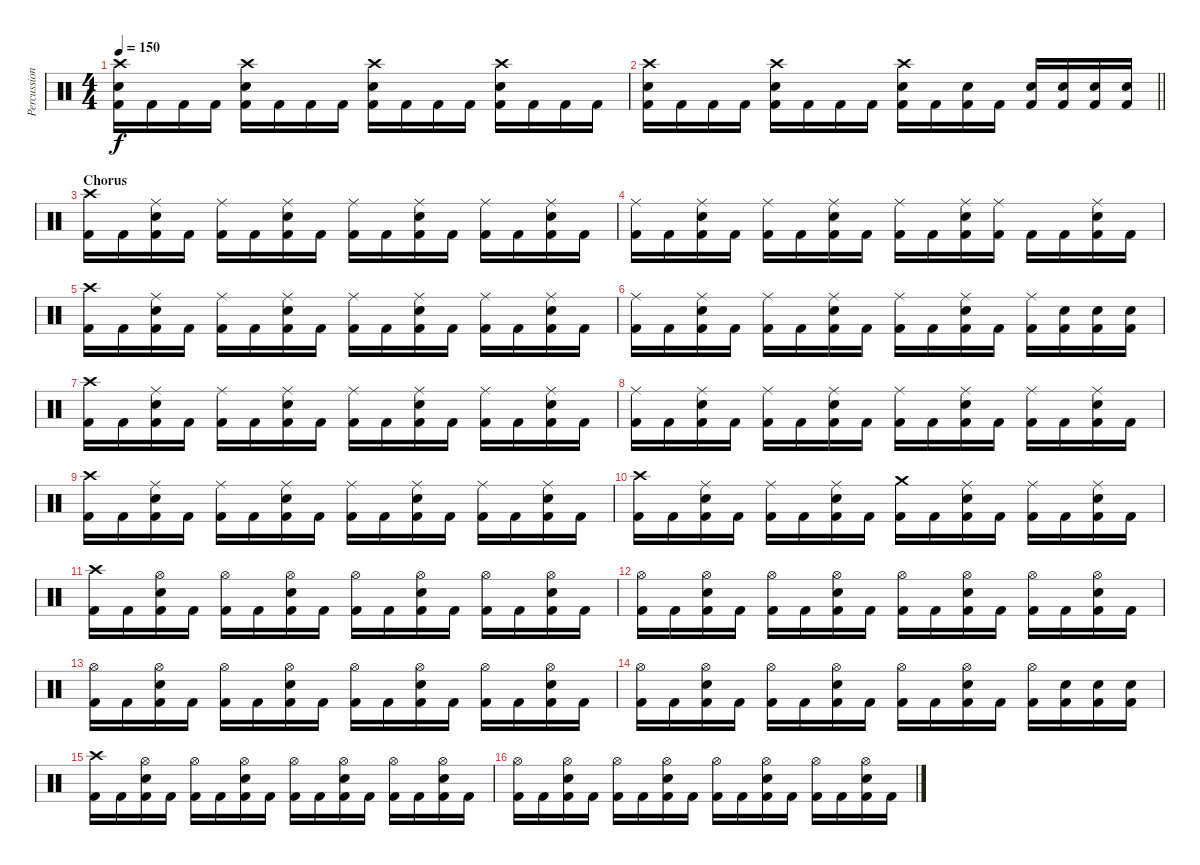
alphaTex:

\track ("Percussion" "Percussion") {instrument percussion}
\staff {score}
\articulation defaults
\ts (4 4)
\tempo 150
\clef neutral
\ks c
("Crash high (hit)" "Electric Snare (hit)" "Kick (hit) 2").16{dy f} "Kick (hit) 2".16 "Kick (hit) 2".16 "Kick (hit) 2".16 ("Crash high (hit)" "Electric Snare (hit)" "Kick (hit) 2").16 "Kick (hit) 2".16 "Kick (hit) 2".16 "Kick (hit) 2".16 ("Crash high (hit)" "Electric Snare (hit)" "Kick (hit) 2").16 "Kick (hit) 2".16 "Kick (hit) 2".16 "Kick (hit) 2".16 ("Crash high (hit)" "Electric Snare (hit)" "Kick (hit) 2").16 "Kick (hit) 2".16 "Kick (hit) 2".16 "Kick (hit) 2".16 |
\barLineRight lightlight
("Crash high (hit)" "Electric Snare (hit)" "Kick (hit) 2").16 "Kick (hit) 2".16 "Kick (hit) 2".16 "Kick (hit) 2".16 ("Crash high (hit)" "Electric Snare (hit)" "Kick (hit) 2").16 "Kick (hit) 2".16 "Kick (hit) 2".16 "Kick (hit) 2".16 ("Crash high (hit)" "Electric Snare (hit)" "Kick (hit) 2").16 "Kick (hit) 2".16 ("Electric Snare (hit)" "Kick (hit) 2").16 "Kick (hit) 2".16 ("Electric Snare (hit)" "Kick (hit) 2").16 ("Electric Snare (hit)" "Kick (hit) 2").16 ("Electric Snare (hit)" "Kick (hit) 2").16 ("Electric Snare (hit)" "Kick (hit) 2").16 |
\section ("" "Chorus")
("Crash high (hit)" "Kick (hit) 2").16 "Kick (hit) 2".16 ("Ride (middle)" "Electric Snare (hit)" "Kick (hit) 2").16 "Kick (hit) 2".16 ("Ride (middle)" "Kick (hit) 2").16 "Kick (hit) 2".16 ("Ride (middle)" "Electric Snare (hit)" "Kick (hit) 2").16 "Kick (hit) 2".16 ("Ride (middle)" "Kick (hit) 2").16 "Kick (hit) 2".16 ("Ride (middle)" "Electric Snare (hit)" "Kick (hit) 2").16 "Kick (hit) 2".16 ("Ride (middle)" "Kick (hit) 2").16 "Kick (hit) 2".16 ("Ride (middle)" "Electric Snare (hit)" "Kick (hit) 2").16 "Kick (hit) 2".16 |
("Ride (middle)" "Kick (hit) 2").16 "Kick (hit) 2".16 ("Ride (middle)" "Electric Snare (hit)" "Kick (hit) 2").16 "Kick (hit) 2".16 ("Ride (middle)" "Kick (hit) 2").16 "Kick (hit) 2".16 ("Ride (middle)" "Electric Snare (hit)" "Kick (hit) 2").16 "Kick (hit) 2".16 ("Ride (middle)" "Kick (hit) 2").16 "Kick (hit) 2".16 ("Ride (middle)" "Electric Snare (hit)" "Kick (hit) 2").16 ("Ride (middle)" "Kick (hit) 2").16 "Kick (hit) 2".16 "Kick (hit) 2".16 ("Ride (middle)" "Electric Snare (hit)" "Kick (hit) 2").16 "Kick (hit) 2".16 |
("Crash high (hit)" "Kick (hit) 2").16 "Kick (hit) 2".16 ("Ride (middle)" "Electric Snare (hit)" "Kick (hit) 2").16 "Kick (hit) 2".16 ("Ride (middle)" "Kick (hit) 2").16 "Kick (hit) 2".16 ("Ride (middle)" "Electric Snare (hit)" "Kick (hit) 2").16 "Kick (hit) 2".16 ("Ride (middle)" "Kick (hit) 2").16 "Kick (hit) 2".16 ("Ride (middle)" "Electric Snare (hit)" "Kick (hit) 2").16 "Kick (hit) 2".16 ("Ride (middle)" "Kick (hit) 2").16 "Kick (hit) 2".16 ("Ride (middle)" "Electric Snare (hit)" "Kick (hit) 2").16 "Kick (hit) 2".16 |
("Ride (middle)" "Kick (hit) 2").16 "Kick (hit) 2".16 ("Ride (middle)" "Electric Snare (hit)" "Kick (hit) 2").16 "Kick (hit) 2".16 ("Ride (middle)" "Kick (hit) 2").16 "Kick (hit) 2".16 ("Ride (middle)" "Electric Snare (hit)" "Kick (hit) 2").16 "Kick (hit) 2".16 ("Ride (middle)" "Kick (hit) 2").16 "Kick (hit) 2".16 ("Ride (middle)" "Electric Snare (hit)" "Kick (hit) 2").16 "Kick (hit) 2".16 ("Ride (middle)" "Kick (hit) 2").16 ("Electric Snare (hit)" "Kick (hit) 2").16 ("Electric Snare (hit)" "Kick (hit) 2").16 ("Electric Snare (hit)" "Kick (hit) 2").16 |
("Crash high (hit)" "Kick (hit) 2").16 "Kick (hit) 2".16 ("Ride (middle)" "Electric Snare (hit)" "Kick (hit) 2").16 "Kick (hit) 2".16 ("Ride (middle)" "Kick (hit) 2").16 "Kick (hit) 2".16 ("Ride (middle)" "Electric Snare (hit)" "Kick (hit) 2").16 "Kick (hit) 2".16 ("Ride (middle)" "Kick (hit) 2").16 "Kick (hit) 2".16 ("Ride (middle)" "Electric Snare (hit)" "Kick (hit) 2").16 "Kick (hit) 2".16 ("Ride (middle)" "Kick (hit) 2").16 "Kick (hit) 2".16 ("Ride (middle)" "Electric Snare (hit)" "Kick (hit) 2").16 "Kick (hit) 2".16 |
("Ride (middle)" "Kick (hit) 2").16 "Kick (hit) 2".16 ("Ride (middle)" "Electric Snare (hit)" "Kick (hit) 2").16 "Kick (hit) 2".16 ("Ride (middle)" "Kick (hit) 2").16 "Kick (hit) 2".16 ("Ride (middle)" "Electric Snare (hit)" "Kick (hit) 2").16 "Kick (hit) 2".16 ("Ride (middle)" "Kick (hit) 2").16 "Kick (hit) 2".16 ("Ride (middle)" "Electric Snare (hit)" "Kick (hit) 2").16 "Kick (hit) 2".16 ("Ride (middle)" "Kick (hit) 2").16 "Kick (hit) 2".16 ("Ride (middle)" "Electric Snare (hit)" "Kick (hit) 2").16 "Kick (hit) 2".16 |
("Crash high (hit)" "Kick (hit) 2").16 "Kick (hit) 2".16 ("Ride (middle)" "Electric Snare (hit)" "Kick (hit) 2").16 "Kick (hit) 2".16 ("Ride (middle)" "Kick (hit) 2").16 "Kick (hit) 2".16 ("Ride (middle)" "Electric Snare (hit)" "Kick (hit) 2").16 "Kick (hit) 2".16 ("Ride (middle)" "Kick (hit) 2").16 "Kick (hit) 2".16 ("Ride (middle)" "Electric Snare (hit)" "Kick (hit) 2").16 "Kick (hit) 2".16 ("Ride (middle)" "Kick (hit) 2").16 "Kick (hit) 2".16 ("Ride (middle)" "Electric Snare (hit)" "Kick (hit) 2").16 "Kick (hit) 2".16 |
("Crash high (hit)" "Kick (hit) 2").16 "Kick (hit) 2".16 ("Ride (middle)" "Electric Snare (hit)" "Kick (hit) 2").16 "Kick (hit) 2".16 ("Ride (middle)" "Kick (hit) 2").16 "Kick (hit) 2".16 ("Ride (middle)" "Electric Snare (hit)" "Kick (hit) 2").16 "Kick (hit) 2".16 ("Crash medium (hit)" "Kick (hit) 2").16 "Kick (hit) 2".16 ("Ride (middle)" "Electric Snare (hit)" "Kick (hit) 2").16 "Kick (hit) 2".16 ("Ride (middle)" "Kick (hit) 2").16 "Kick (hit) 2".16 ("Ride (middle)" "Electric Snare (hit)" "Kick (hit) 2").16 "Kick (hit) 2".16 |
("Crash high (hit)" "Kick (hit) 2").16 "Kick (hit) 2".16 ("Hi-Hat (open)" "Electric Snare (hit)" "Kick (hit) 2").16 "Kick (hit) 2".16 ("Hi-Hat (open)" "Kick (hit) 2").16 "Kick (hit) 2".16 ("Hi-Hat (open)" "Electric Snare (hit)" "Kick (hit) 2").16 "Kick (hit) 2".16 ("Hi-Hat (open)" "Kick (hit) 2").16 "Kick (hit) 2".16 ("Hi-Hat (open)" "Electric Snare (hit)" "Kick (hit) 2").16 "Kick (hit) 2".16 ("Hi-Hat (open)" "Kick (hit) 2").16 "Kick (hit) 2".16 ("Hi-Hat (open)" "Electric Snare (hit)" "Kick (hit) 2").16 "Kick (hit) 2".16 |
("Hi-Hat (open)" "Kick (hit) 2").16 "Kick (hit) 2".16 ("Hi-Hat (open)" "Electric Snare (hit)" "Kick (hit) 2").16 "Kick (hit) 2".16 ("Hi-Hat (open)" "Kick (hit) 2").16 "Kick (hit) 2".16 ("Hi-Hat (open)" "Electric Snare (hit)" "Kick (hit) 2").16 "Kick (hit) 2".16 ("Hi-Hat (open)" "Kick (hit) 2").16 "Kick (hit) 2".16 ("Hi-Hat (open)" "Electric Snare (hit)" "Kick (hit) 2").16 "Kick (hit) 2".16 ("Hi-Hat (open)" "Kick (hit) 2").16 "Kick (hit) 2".16 ("Hi-Hat (open)" "Electric Snare (hit)" "Kick (hit) 2").16 "Kick (hit) 2".16 |
("Hi-Hat (open)" "Kick (hit) 2").16 "Kick (hit) 2".16 ("Hi-Hat (open)" "Electric Snare (hit)" "Kick (hit) 2").16 "Kick (hit) 2".16 ("Hi-Hat (open)" "Kick (hit) 2").16 "Kick (hit) 2".16 ("Hi-Hat (open)" "Electric Snare (hit)" "Kick (hit) 2").16 "Kick (hit) 2".16 ("Hi-Hat (open)" "Kick (hit) 2").16 "Kick (hit) 2".16 ("Hi-Hat (open)" "Electric Snare (hit)" "Kick (hit) 2").16 "Kick (hit) 2".16 ("Hi-Hat (open)" "Kick (hit) 2").16 "Kick (hit) 2".16 ("Hi-Hat (open)" "Electric Snare (hit)" "Kick (hit) 2").16 "Kick (hit) 2".16 |
("Hi-Hat (open)" "Kick (hit) 2").16 "Kick (hit) 2".16 ("Hi-Hat (open)" "Electric Snare (hit)" "Kick (hit) 2").16 "Kick (hit) 2".16 ("Hi-Hat (open)" "Kick (hit) 2").16 "Kick (hit) 2".16 ("Hi-Hat (open)" "Electric Snare (hit)" "Kick (hit) 2").16 "Kick (hit) 2".16 ("Hi-Hat (open)" "Kick (hit) 2").16 "Kick (hit) 2".16 ("Hi-Hat (open)" "Electric Snare (hit)" "Kick (hit) 2").16 "Kick (hit) 2".16 ("Hi-Hat (open)" "Kick (hit) 2").16 ("Electric Snare (hit)" "Kick (hit) 2").16 ("Electric Snare (hit)" "Kick (hit) 2").16 ("Electric Snare (hit)" "Kick (hit) 2").16 |
("Crash high (hit)" "Kick (hit) 2").16 "Kick (hit) 2".16 ("Hi-Hat (open)" "Electric Snare (hit)" "Kick (hit) 2").16 "Kick (hit) 2".16 ("Hi-Hat (open)" "Kick (hit) 2").16 "Kick (hit) 2".16 ("Hi-Hat (open)" "Electric Snare (hit)" "Kick (hit) 2").16 "Kick (hit) 2".16 ("Hi-Hat (open)" "Kick (hit) 2").16 "Kick (hit) 2".16 ("Hi-Hat (open)" "Electric Snare (hit)" "Kick (hit) 2").16 "Kick (hit) 2".16 ("Hi-Hat (open)" "Kick (hit) 2").16 "Kick (hit) 2".16 ("Hi-Hat (open)" "Electric Snare (hit)" "Kick (hit) 2").16 "Kick (hit) 2".16 |
("Hi-Hat (open)" "Kick (hit) 2").16 "Kick (hit) 2".16 ("Hi-Hat (open)" "Electric Snare (hit)" "Kick (hit) 2").16 "Kick (hit) 2".16 ("Hi-Hat (open)" "Kick (hit) 2").16 "Kick (hit) 2".16 ("Hi-Hat (open)" "Electric Snare (hit)" "Kick (hit) 2").16 "Kick (hit) 2".16 ("Hi-Hat (open)" "Kick (hit) 2").16 "Kick (hit) 2".16 ("Hi-Hat (open)" "Electric Snare (hit)" "Kick (hit) 2").16 "Kick (hit) 2".16 ("Hi-Hat (open)" "Kick (hit) 2").16 "Kick (hit) 2".16 ("Hi-Hat (open)" "Electric Snare (hit)" "Kick (hit) 2").16 "Kick (hit) 2".16
